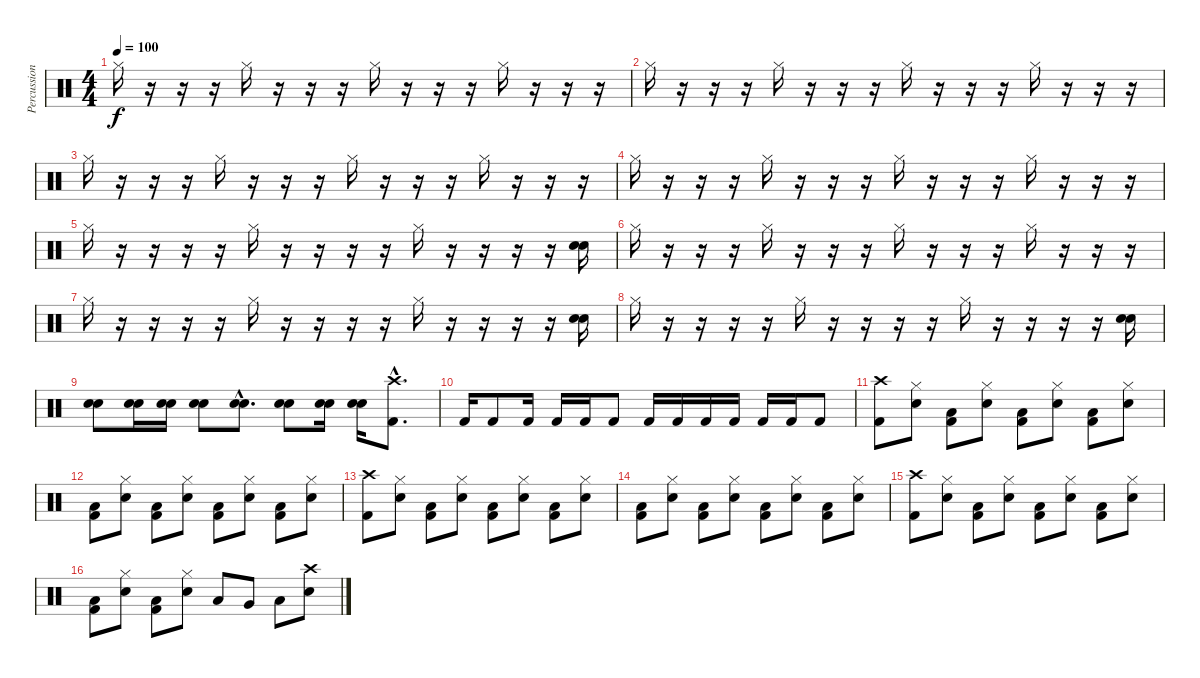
\track ("Percussion" "Percussion") {instrument percussion}
\staff {score}
\articulation defaults
\ts (4 4)
\tempo 100
\clef neutral
\ks c "Hi-Hat (closed)".16{dy f}
r.16 r.16 r.16 "Hi-Hat (closed)".16 r.16 r.16 r.16 "Hi-Hat (closed)".16 r.16 r.16 r.16 "Hi-Hat (closed)".16 r.16 r.16 r.16 |
"Hi-Hat (closed)".16 r.16 r.16 r.16 "Hi-Hat (closed)".16 r.16 r.16 r.16 "Hi-Hat (closed)".16 r.16 r.16 r.16 "Hi-Hat (closed)".16 r.16 r.16 r.16 |
"Hi-Hat (closed)".16 r.16 r.16 r.16 "Hi-Hat (closed)".16 r.16 r.16 r.16 "Hi-Hat (closed)".16 r.16 r.16 r.16 "Hi-Hat (closed)".16 r.16 r.16 r.16 |
"Hi-Hat (closed)".16 r.16 r.16 r.16 "Hi-Hat (closed)".16 r.16 r.16 r.16 "Hi-Hat (closed)".16 r.16 r.16 r.16 "Hi-Hat (closed)".16 r.16 r.16 r.16 |
"Hi-Hat (closed)".16 r.16 r.16 r.16 r.16 "Hi-Hat (closed)".16 r.16 r.16 r.16 r.16 "Hi-Hat (closed)".16 r.16 r.16 r.16 r.16 ("Electric Snare (hit)" "Electric Snare (hit)").16 |
"Hi-Hat (closed)".16 r.16 r.16 r.16 "Hi-Hat (closed)".16 r.16 r.16 r.16 "Hi-Hat (closed)".16 r.16 r.16 r.16 "Hi-Hat (closed)".16 r.16 r.16 r.16 |
"Hi-Hat (closed)".16 r.16 r.16 r.16 r.16 "Hi-Hat (closed)".16 r.16 r.16 r.16 r.16 "Hi-Hat (closed)".16 r.16 r.16 r.16 r.16 ("Electric Snare (hit)" "Electric Snare (hit)").16 |
"Hi-Hat (closed)".16 r.16 r.16 r.16 r.16 "Hi-Hat (closed)".16 r.16 r.16 r.16 r.16 "Hi-Hat (closed)".16 r.16 r.16 r.16 r.16 ("Electric Snare (hit)" "Electric Snare (hit)").16 |
("Electric Snare (hit)" "Electric Snare (hit)").8 ("Electric Snare (hit)" "Electric Snare (hit)").16 ("Electric Snare (hit)" "Electric Snare (hit)").16 ("Electric Snare (hit)" "Electric Snare (hit)").8 ("Electric Snare (hit)"{hac} "Electric Snare (hit)"{hac}).8{d} ("Electric Snare (hit)" "Electric Snare (hit)").8 ("Electric Snare (hit)" "Electric Snare (hit)").16 ("Electric Snare (hit)" "Electric Snare (hit)").16 ("Kick (hit) 2"{hac} "Crash high (hit)"{hac}).8{d} |
"Kick (hit) 2".16 "Kick (hit) 2".8 "Kick (hit) 2".16 "Kick (hit) 2".16 "Kick (hit) 2".16 "Kick (hit) 2".8 "Kick (hit) 2".16 "Kick (hit) 2".16 "Kick (hit) 2".16 "Kick (hit) 2".16 "Kick (hit) 2".16 "Kick (hit) 2".16 "Kick (hit) 2".8 |
("Crash high (hit)" "Kick (hit) 2").8 ("Electric Snare (hit)" "Hi-Hat (closed)").8 ("Low Floor Tom (hit)" "Kick (hit) 2").8 ("Electric Snare (hit)" "Hi-Hat (closed)").8 ("Low Floor Tom (hit)" "Kick (hit) 2").8 ("Electric Snare (hit)" "Hi-Hat (closed)").8 ("Low Floor Tom (hit)" "Kick (hit) 2").8 ("Electric Snare (hit)" "Hi-Hat (closed)").8 |
("Low Floor Tom (hit)" "Kick (hit) 2").8 ("Electric Snare (hit)" "Hi-Hat (closed)").8 ("Low Floor Tom (hit)" "Kick (hit) 2").8 ("Electric Snare (hit)" "Hi-Hat (closed)").8 ("Low Floor Tom (hit)" "Kick (hit) 2").8 ("Electric Snare (hit)" "Hi-Hat (closed)").8 ("Low Floor Tom (hit)" "Kick (hit) 2").8 ("Electric Snare (hit)" "Hi-Hat (closed)").8 |
("Crash high (hit)" "Kick (hit) 2").8 ("Electric Snare (hit)" "Hi-Hat (closed)").8 ("Low Floor Tom (hit)" "Kick (hit) 2").8 ("Electric Snare (hit)" "Hi-Hat (closed)").8 ("Low Floor Tom (hit)" "Kick (hit) 2").8 ("Electric Snare (hit)" "Hi-Hat (closed)").8 ("Low Floor Tom (hit)" "Kick (hit) 2").8 ("Electric Snare (hit)" "Hi-Hat (closed)").8 |
("Low Floor Tom (hit)" "Kick (hit) 2").8 ("Electric Snare (hit)" "Hi-Hat (closed)").8 ("Low Floor Tom (hit)" "Kick (hit) 2").8 ("Electric Snare (hit)" "Hi-Hat (closed)").8 ("Low Floor Tom (hit)" "Kick (hit) 2").8 ("Electric Snare (hit)" "Hi-Hat (closed)").8 ("Low Floor Tom (hit)" "Kick (hit) 2").8 ("Electric Snare (hit)" "Hi-Hat (closed)").8 |
("Crash high (hit)" "Kick (hit) 2").8 ("Electric Snare (hit)" "Hi-Hat (closed)").8 ("Low Floor Tom (hit)" "Kick (hit) 2").8 ("Electric Snare (hit)" "Hi-Hat (closed)").8 ("Low Floor Tom (hit)" "Kick (hit) 2").8 ("Electric Snare (hit)" "Hi-Hat (closed)").8 ("Low Floor Tom (hit)" "Kick (hit) 2").8 ("Electric Snare (hit)" "Hi-Hat (closed)").8 |
("Low Floor Tom (hit)" "Kick (hit) 2").8 ("Electric Snare (hit)" "Hi-Hat (closed)").8 ("Low Floor Tom (hit)" "Kick (hit) 2").8 ("Electric Snare (hit)" "Hi-Hat (closed)").8 "Low Floor Tom (hit)".8 "Very Low Tom (hit)".8 "Low Floor Tom (hit)".8 ("Electric Snare (hit)" "Crash high (hit)").8
